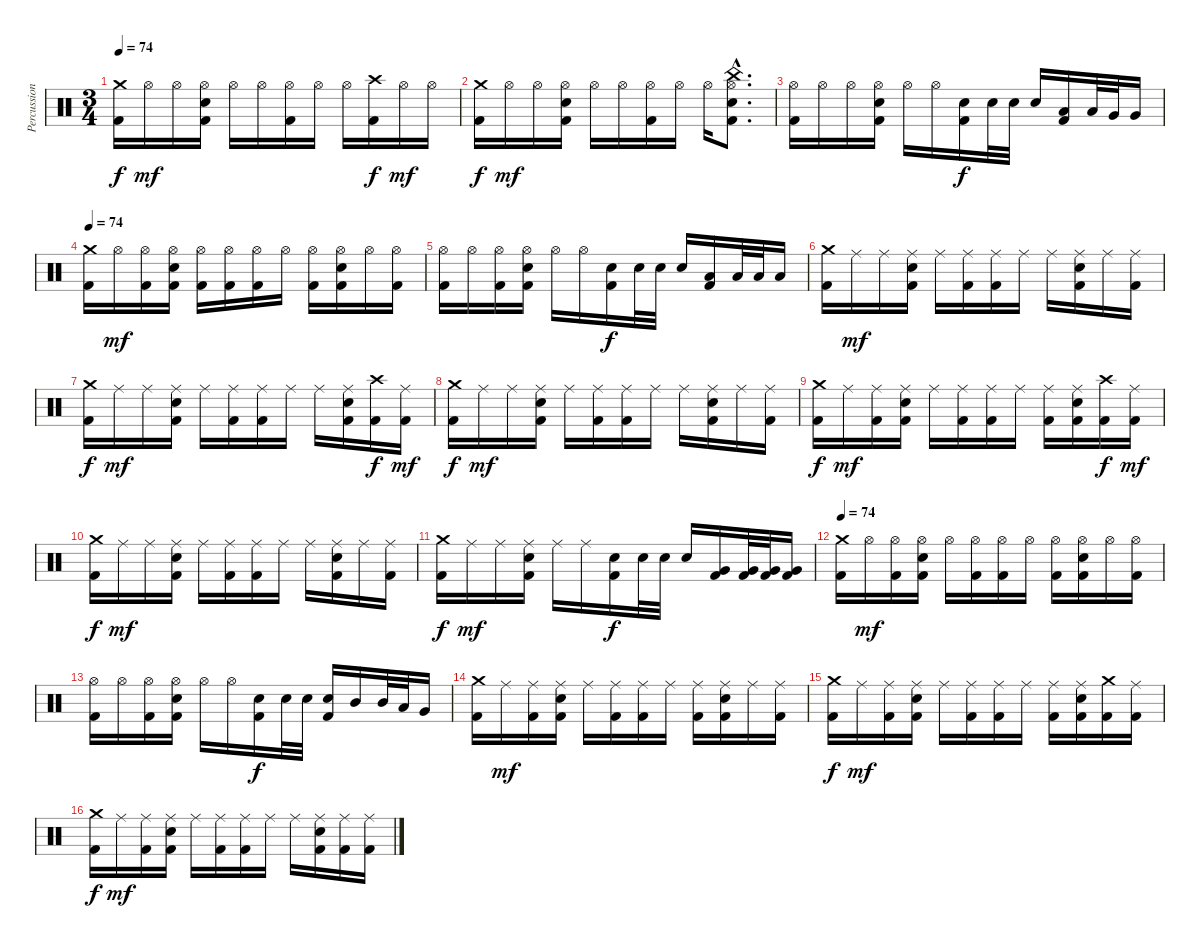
\track ("Percussion" "Percussion") {instrument percussion}
\staff {score}
\articulation defaults
\ts (3 4)
\tempo 74
\clef neutral
\ks c
("Crash medium (hit)" "Kick (hit) 2").16{dy f} "Hi-Hat (open)".16{dy mf} "Hi-Hat (open)".16 ("Hi-Hat (open)" "Electric Snare (hit)" "Kick (hit) 2").16 "Hi-Hat (open)".16 "Hi-Hat (open)".16 ("Hi-Hat (open)" "Kick (hit) 2").16 "Hi-Hat (open)".16 "Hi-Hat (open)".16 ("Crash high (hit)" "Kick (hit) 2").16{dy f} "Hi-Hat (open)".16{dy mf} "Hi-Hat (open)".16 |
("Crash medium (hit)" "Kick (hit) 2").16{dy f} "Hi-Hat (open)".16{dy mf} "Hi-Hat (open)".16 ("Hi-Hat (open)" "Electric Snare (hit)" "Kick (hit) 2").16 "Hi-Hat (open)".16 "Hi-Hat (open)".16 ("Hi-Hat (open)" "Kick (hit) 2").16 "Hi-Hat (open)".16 "Hi-Hat (open)".16 ("China (hit)"{hac} "Hi-Hat (open)"{hac} "Electric Snare (hit)"{hac} "Kick (hit) 2"{hac}).8{d} |
("Hi-Hat (open)" "Kick (hit) 2").16 "Hi-Hat (open)".16 "Hi-Hat (open)".16 ("Hi-Hat (open)" "Electric Snare (hit)" "Kick (hit) 2").16 "Hi-Hat (open)".16 "Hi-Hat (open)".16 ("Electric Snare (hit)" "Kick (hit) 2").16{dy f} "Electric Snare (hit)".32 "Electric Snare (hit)".32 "Electric Snare (hit)".16 ("Low Tom (hit)" "Kick (hit) 2").16 "Low Tom (hit)".32 "Very Low Tom (hit)".32 "Very Low Tom (hit)".16 |
\tempo 74
("Crash medium (hit)" "Kick (hit) 2").16 "Hi-Hat (open)".16{dy mf} ("Hi-Hat (open)" "Kick (hit) 2").16 ("Hi-Hat (open)" "Electric Snare (hit)" "Kick (hit) 2").16 ("Hi-Hat (open)" "Kick (hit) 2").16 ("Hi-Hat (open)" "Kick (hit) 2").16 ("Hi-Hat (open)" "Kick (hit) 2").16 "Hi-Hat (open)".16 ("Hi-Hat (open)" "Kick (hit) 2").16 ("Hi-Hat (open)" "Electric Snare (hit)" "Kick (hit) 2").16 "Hi-Hat (open)".16 ("Hi-Hat (open)" "Kick (hit) 2").16 |
("Hi-Hat (open)" "Kick (hit) 2").16 "Hi-Hat (open)".16 ("Hi-Hat (open)" "Kick (hit) 2").16 ("Hi-Hat (open)" "Electric Snare (hit)" "Kick (hit) 2").16 "Hi-Hat (open)".16 "Hi-Hat (open)".16 ("Electric Snare (hit)" "Kick (hit) 2").16{dy f} "Electric Snare (hit)".32 "Electric Snare (hit)".32 "Electric Snare (hit)".16 ("Low Tom (hit)" "Kick (hit) 2").16 "Low Tom (hit)".32 "Low Tom (hit)".32 "Low Tom (hit)".16 |
("Crash medium (hit)" "Kick (hit) 2").16 "Ride (middle)".16{dy mf} "Ride (middle)".16 ("Ride (middle)" "Electric Snare (hit)" "Kick (hit) 2").16 "Ride (middle)".16 ("Ride (middle)" "Kick (hit) 2").16 ("Ride (middle)" "Kick (hit) 2").16 "Ride (middle)".16 "Ride (middle)".16 ("Ride (middle)" "Electric Snare (hit)" "Kick (hit) 2").16 "Ride (middle)".16 ("Ride (middle)" "Kick (hit) 2").16 |
("Crash medium (hit)" "Kick (hit) 2").16{dy f} "Ride (middle)".16{dy mf} "Ride (middle)".16 ("Ride (middle)" "Electric Snare (hit)" "Kick (hit) 2").16 "Ride (middle)".16 ("Ride (middle)" "Kick (hit) 2").16 ("Ride (middle)" "Kick (hit) 2").16 "Ride (middle)".16 "Ride (middle)".16 ("Ride (middle)" "Electric Snare (hit)" "Kick (hit) 2").16 ("Crash high (hit)" "Kick (hit) 2").16{dy f} ("Ride (middle)" "Kick (hit) 2").16{dy mf} |
("Crash medium (hit)" "Kick (hit) 2").16{dy f} "Ride (middle)".16{dy mf} "Ride (middle)".16 ("Ride (middle)" "Electric Snare (hit)" "Kick (hit) 2").16 "Ride (middle)".16 ("Ride (middle)" "Kick (hit) 2").16 ("Ride (middle)" "Kick (hit) 2").16 "Ride (middle)".16 "Ride (middle)".16 ("Ride (middle)" "Electric Snare (hit)" "Kick (hit) 2").16 "Ride (middle)".16 ("Ride (middle)" "Kick (hit) 2").16 |
("Crash medium (hit)" "Kick (hit) 2").16{dy f} "Ride (middle)".16{dy mf} ("Ride (middle)" "Kick (hit) 2").16 ("Ride (middle)" "Electric Snare (hit)" "Kick (hit) 2").16 "Ride (middle)".16 ("Ride (middle)" "Kick (hit) 2").16 ("Ride (middle)" "Kick (hit) 2").16 "Ride (middle)".16 ("Ride (middle)" "Kick (hit) 2").16 ("Ride (middle)" "Electric Snare (hit)" "Kick (hit) 2").16 ("Crash high (hit)" "Kick (hit) 2").16{dy f} ("Ride (middle)" "Kick (hit) 2").16{dy mf} |
("Crash medium (hit)" "Kick (hit) 2").16{dy f} "Ride (middle)".16{dy mf} "Ride (middle)".16 ("Ride (middle)" "Electric Snare (hit)" "Kick (hit) 2").16 "Ride (middle)".16 ("Ride (middle)" "Kick (hit) 2").16 ("Ride (middle)" "Kick (hit) 2").16 "Ride (middle)".16 "Ride (middle)".16 ("Ride (middle)" "Electric Snare (hit)" "Kick (hit) 2").16 "Ride (middle)".16 ("Ride (middle)" "Kick (hit) 2").16 |
("Crash medium (hit)" "Kick (hit) 2").16{dy f} "Ride (middle)".16{dy mf} "Ride (middle)".16 ("Ride (middle)" "Electric Snare (hit)" "Kick (hit) 2").16 "Ride (middle)".16 "Ride (middle)".16 ("Electric Snare (hit)" "Kick (hit) 2").16{dy f} "Electric Snare (hit)".32 "Electric Snare (hit)".32 "Electric Snare (hit)".16 ("Very Low Tom (hit)" "Kick (hit) 2").16 ("Very Low Tom (hit)" "Kick (hit) 2").32 ("Very Low Tom (hit)" "Kick (hit) 2").32 ("Very Low Tom (hit)" "Kick (hit) 2").16 |
\tempo 74
("Crash medium (hit)" "Kick (hit) 2").16 "Hi-Hat (open)".16{dy mf} ("Hi-Hat (open)" "Kick (hit) 2").16 ("Hi-Hat (open)" "Electric Snare (hit)" "Kick (hit) 2").16 "Hi-Hat (open)".16 ("Hi-Hat (open)" "Kick (hit) 2").16 ("Hi-Hat (open)" "Kick (hit) 2").16 "Hi-Hat (open)".16 ("Hi-Hat (open)" "Kick (hit) 2").16 ("Hi-Hat (open)" "Electric Snare (hit)" "Kick (hit) 2").16 "Hi-Hat (open)".16 ("Hi-Hat (open)" "Kick (hit) 2").16 |
("Hi-Hat (open)" "Kick (hit) 2").16 "Hi-Hat (open)".16 ("Hi-Hat (open)" "Kick (hit) 2").16 ("Hi-Hat (open)" "Electric Snare (hit)" "Kick (hit) 2").16 "Hi-Hat (open)".16 "Hi-Hat (open)".16 ("Electric Snare (hit)" "Kick (hit) 2").16{dy f} "Electric Snare (hit)".32 "Electric Snare (hit)".32 ("Electric Snare (hit)" "Kick (hit) 2").16 "Mid Tom (hit)".16 "Mid Tom (hit)".32 "Low Tom (hit)".32 "Very Low Tom (hit)".16 |
("Crash medium (hit)" "Kick (hit) 2").16 "Ride (middle)".16{dy mf} ("Ride (middle)" "Kick (hit) 2").16 ("Ride (middle)" "Electric Snare (hit)" "Kick (hit) 2").16 "Ride (middle)".16 ("Ride (middle)" "Kick (hit) 2").16 ("Ride (middle)" "Kick (hit) 2").16 "Ride (middle)".16 ("Ride (middle)" "Kick (hit) 2").16 ("Ride (middle)" "Electric Snare (hit)" "Kick (hit) 2").16 "Ride (middle)".16 ("Ride (middle)" "Kick (hit) 2").16 |
("Crash medium (hit)" "Kick (hit) 2").16{dy f} "Ride (middle)".16{dy mf} ("Ride (middle)" "Kick (hit) 2").16 ("Ride (middle)" "Electric Snare (hit)" "Kick (hit) 2").16 "Ride (middle)".16 ("Ride (middle)" "Kick (hit) 2").16 ("Ride (middle)" "Kick (hit) 2").16 "Ride (middle)".16 ("Ride (middle)" "Kick (hit) 2").16 ("Ride (middle)" "Electric Snare (hit)" "Kick (hit) 2").16 ("Crash medium (hit)" "Kick (hit) 2").16 ("Ride (middle)" "Kick (hit) 2").16 |
("Crash medium (hit)" "Kick (hit) 2").16{dy f} "Ride (middle)".16{dy mf} ("Ride (middle)" "Kick (hit) 2").16 ("Ride (middle)" "Electric Snare (hit)" "Kick (hit) 2").16 "Ride (middle)".16 ("Ride (middle)" "Kick (hit) 2").16 ("Ride (middle)" "Kick (hit) 2").16 "Ride (middle)".16 "Ride (middle)".16 ("Ride (middle)" "Electric Snare (hit)" "Kick (hit) 2").16 ("Ride (middle)" "Kick (hit) 2").16 ("Ride (middle)" "Kick (hit) 2").16
